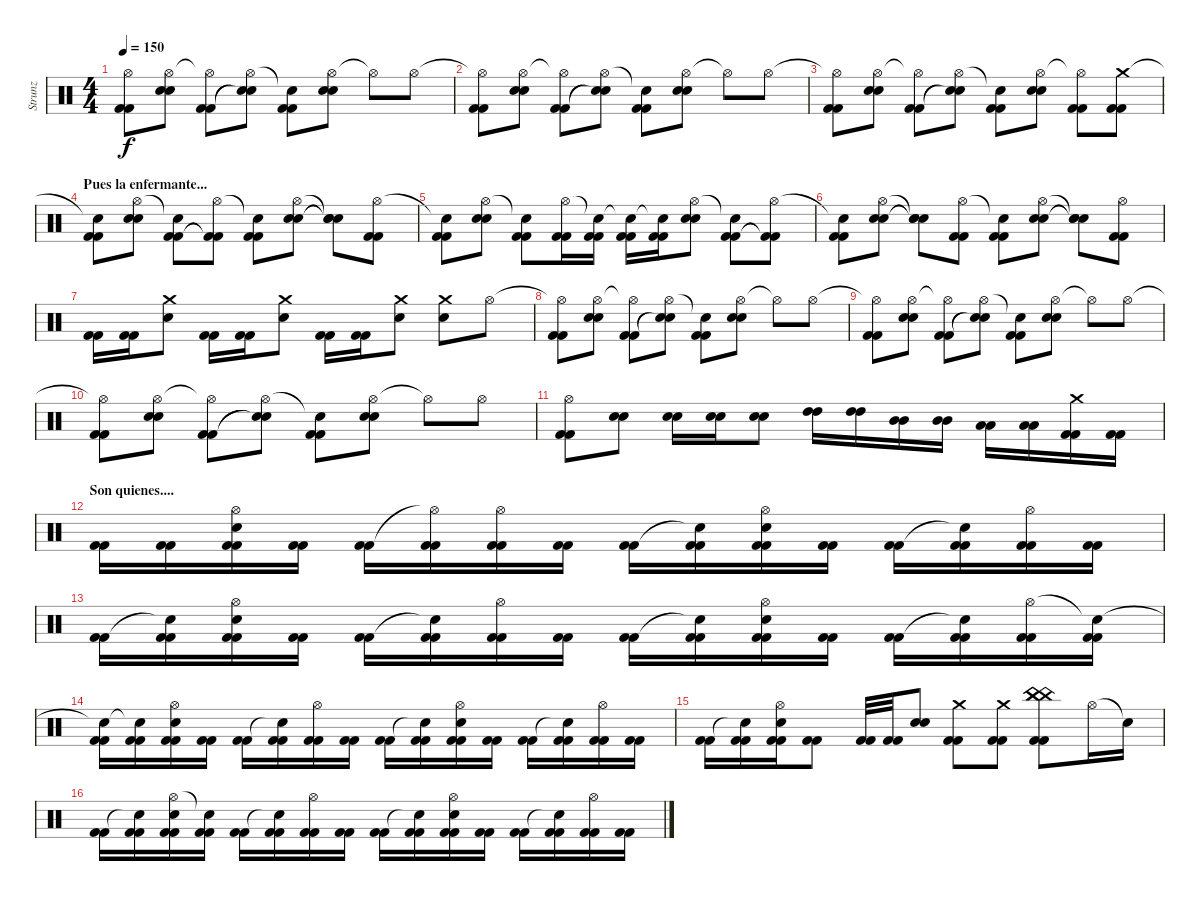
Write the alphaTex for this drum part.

\track ("Strunz" "Strunz") {instrument percussion}
\staff {score}
\articulation defaults
\ts (4 4)
\tempo 150
\clef neutral
\ks c
("Hi-Hat (open)"{t} "Kick (hit) 2" "Kick (hit) 2").8{dy f} ("Hi-Hat (open)" "Snare (hit) 2" "Snare (hit) 2").8 ("Hi-Hat (open)"{t} "Kick (hit) 2" "Kick (hit) 2").8 ("Hi-Hat (open)" "Snare (hit)"{t} "Snare (hit)"{t}).8 ("Snare (hit)"{t} "Kick (hit) 2" "Kick (hit) 2").8 ("Hi-Hat (open)" "Snare (hit) 2" "Snare (hit) 2").8 "Hi-Hat (open)"{t}.8 "Hi-Hat (open)".8 |
("Hi-Hat (open)"{t} "Kick (hit) 2" "Kick (hit) 2").8 ("Hi-Hat (open)" "Snare (hit) 2" "Snare (hit) 2").8 ("Hi-Hat (open)"{t} "Kick (hit) 2" "Kick (hit) 2").8 ("Hi-Hat (open)" "Snare (hit)"{t} "Snare (hit)"{t}).8 ("Snare (hit)"{t} "Kick (hit) 2" "Kick (hit) 2").8 ("Hi-Hat (open)" "Snare (hit) 2" "Snare (hit) 2").8 "Hi-Hat (open)"{t}.8 "Hi-Hat (open)".8 |
("Hi-Hat (open)"{t} "Kick (hit) 2" "Kick (hit) 2").8 ("Hi-Hat (open)" "Snare (hit) 2" "Snare (hit) 2").8 ("Hi-Hat (open)"{t} "Kick (hit) 2" "Kick (hit) 2").8 ("Hi-Hat (open)" "Snare (hit)"{t} "Snare (hit)"{t}).8 ("Snare (hit)"{t} "Kick (hit) 2" "Kick (hit) 2").8 ("Hi-Hat (open)" "Snare (hit) 2" "Snare (hit) 2").8 ("Hi-Hat (open)"{t} "Kick (hit) 2" "Kick (hit) 2").8 ("Crash medium (hit)" "Kick (hit) 2" "Kick (hit) 2").8 |
\section ("" "Pues la enfermante...")
("Snare (hit)"{t} "Kick (hit) 2" "Kick (hit) 2").8 ("Hi-Hat (open)" "Snare (hit) 2" "Snare (hit) 2").8 ("Snare (hit)"{t} "Kick (hit) 2" "Kick (hit) 2").8 ("Hi-Hat (open)" "Kick (hit) 2"{t} "Kick (hit) 2"{t}).8 ("Snare (hit)"{t} "Kick (hit) 2" "Kick (hit) 2").8 ("Hi-Hat (open)" "Snare (hit) 2" "Snare (hit) 2").8 ("Snare (hit)"{t} "Snare (hit) 2"{t} "Snare (hit) 2"{t}).8 ("Hi-Hat (open)" "Kick (hit) 2" "Kick (hit) 2").8 |
("Snare (hit)"{t} "Kick (hit) 2" "Kick (hit) 2").8 ("Hi-Hat (open)" "Snare (hit) 2" "Snare (hit) 2").8 ("Snare (hit)"{t} "Kick (hit) 2" "Kick (hit) 2").8 ("Hi-Hat (open)" "Kick (hit) 2" "Kick (hit) 2").16 ("Snare (hit)"{t} "Kick (hit) 2" "Kick (hit) 2").16 ("Snare (hit)"{t} "Kick (hit) 2" "Kick (hit) 2").16 ("Snare (hit)"{t} "Kick (hit) 2" "Kick (hit) 2").16 ("Hi-Hat (open)" "Snare (hit) 2" "Snare (hit) 2").8 ("Snare (hit)"{t} "Kick (hit) 2" "Kick (hit) 2").8 ("Hi-Hat (open)" "Kick (hit) 2"{t} "Kick (hit) 2"{t}).8 |
("Snare (hit)"{t} "Kick (hit) 2" "Kick (hit) 2").8 ("Hi-Hat (open)" "Snare (hit) 2" "Snare (hit) 2").8 ("Snare (hit)"{t} "Snare (hit) 2"{t} "Snare (hit) 2"{t}).8 ("Hi-Hat (open)" "Kick (hit) 2" "Kick (hit) 2").8 ("Snare (hit)"{t} "Kick (hit) 2" "Kick (hit) 2").8 ("Hi-Hat (open)" "Snare (hit) 2" "Snare (hit) 2").8 ("Snare (hit)"{t} "Snare (hit)"{t} "Snare (hit)"{t}).8 ("Hi-Hat (open)" "Kick (hit) 2" "Kick (hit) 2").8 |
("Kick (hit) 2" "Kick (hit) 2").16 ("Kick (hit) 2" "Kick (hit) 2").16 ("Crash medium (hit)" "Snare (hit) 2").8 ("Kick (hit) 2" "Kick (hit) 2").16 ("Kick (hit) 2" "Kick (hit) 2").16 ("Crash medium (hit)" "Snare (hit) 2").8 ("Kick (hit) 2" "Kick (hit) 2").16 ("Kick (hit) 2" "Kick (hit) 2").16 ("Crash medium (hit)" "Snare (hit) 2").8 ("Crash medium (hit)" "Snare (hit) 2").8 "Hi-Hat (open)".8 |
("Hi-Hat (open)"{t} "Kick (hit) 2" "Kick (hit) 2").8 ("Hi-Hat (open)" "Snare (hit) 2" "Snare (hit) 2").8 ("Hi-Hat (open)"{t} "Kick (hit) 2" "Kick (hit) 2").8 ("Hi-Hat (open)" "Snare (hit)"{t} "Snare (hit)"{t}).8 ("Snare (hit)"{t} "Kick (hit) 2" "Kick (hit) 2").8 ("Hi-Hat (open)" "Snare (hit) 2" "Snare (hit) 2").8 "Hi-Hat (open)"{t}.8 "Hi-Hat (open)".8 |
("Hi-Hat (open)"{t} "Kick (hit) 2" "Kick (hit) 2").8 ("Hi-Hat (open)" "Snare (hit) 2" "Snare (hit) 2").8 ("Hi-Hat (open)"{t} "Kick (hit) 2" "Kick (hit) 2").8 ("Hi-Hat (open)" "Snare (hit)"{t} "Snare (hit)"{t}).8 ("Snare (hit)"{t} "Kick (hit) 2" "Kick (hit) 2").8 ("Hi-Hat (open)" "Snare (hit) 2" "Snare (hit) 2").8 "Hi-Hat (open)"{t}.8 "Hi-Hat (open)".8 |
("Hi-Hat (open)"{t} "Kick (hit) 2" "Kick (hit) 2").8 ("Hi-Hat (open)" "Snare (hit) 2" "Snare (hit) 2").8 ("Hi-Hat (open)"{t} "Kick (hit) 2" "Kick (hit) 2").8 ("Hi-Hat (open)" "Snare (hit)"{t} "Snare (hit)"{t}).8 ("Snare (hit)"{t} "Kick (hit) 2" "Kick (hit) 2").8 ("Hi-Hat (open)" "Snare (hit) 2" "Snare (hit) 2").8 "Hi-Hat (open)"{t}.8 "Hi-Hat (open)".8 |
("Hi-Hat (open)" "Kick (hit) 2" "Kick (hit) 2").8 ("Snare (hit) 2" "Snare (hit) 2").8 ("Snare (hit) 2" "Snare (hit) 2").16 ("Snare (hit) 2" "Snare (hit) 2").16 ("Snare (hit) 2" "Snare (hit) 2").8 ("High Tom (hit)" "High Tom (hit)").16 ("High Tom (hit)" "High Tom (hit)").16 ("Mid Tom (hit)" "Mid Tom (hit)").16 ("Mid Tom (hit)" "Mid Tom (hit)").16 ("Low Tom (hit)" "Low Tom (hit)").16 ("Low Tom (hit)" "Low Tom (hit)").16 ("Crash medium (hit)" "Kick (hit) 2" "Kick (hit) 2").16 ("Kick (hit) 2" "Kick (hit) 2").16 |
\section ("" "Son quienes....")
("Kick (hit) 2" "Kick (hit) 2").16 ("Kick (hit) 2" "Kick (hit) 2").16 ("Hi-Hat (open)" "Snare (hit) 2" "Kick (hit) 2" "Kick (hit) 2").16 ("Kick (hit) 2" "Kick (hit) 2").16 ("Kick (hit) 2" "Kick (hit) 2").16 ("Hi-Hat (open)"{t} "Kick (hit) 2" "Kick (hit) 2").16 ("Hi-Hat (open)" "Kick (hit) 2" "Kick (hit) 2").16 ("Kick (hit) 2" "Kick (hit) 2").16 ("Kick (hit) 2" "Kick (hit) 2").16 ("Snare (hit)"{t} "Kick (hit) 2" "Kick (hit) 2").16 ("Hi-Hat (open)" "Snare (hit) 2" "Kick (hit) 2" "Kick (hit) 2").16 ("Kick (hit) 2" "Kick (hit) 2").16 ("Kick (hit) 2" "Kick (hit) 2").16 ("Snare (hit)"{t} "Kick (hit) 2" "Kick (hit) 2").16 ("Hi-Hat (open)" "Kick (hit) 2" "Kick (hit) 2").16 ("Kick (hit) 2" "Kick (hit) 2").16 |
("Kick (hit) 2" "Kick (hit) 2").16 ("Snare (hit)"{t} "Kick (hit) 2" "Kick (hit) 2").16 ("Hi-Hat (open)" "Snare (hit) 2" "Kick (hit) 2" "Kick (hit) 2").16 ("Kick (hit) 2" "Kick (hit) 2").16 ("Kick (hit) 2" "Kick (hit) 2").16 ("Snare (hit)"{t} "Kick (hit) 2" "Kick (hit) 2").16 ("Hi-Hat (open)" "Kick (hit) 2" "Kick (hit) 2").16 ("Kick (hit) 2" "Kick (hit) 2").16 ("Kick (hit) 2" "Kick (hit) 2").16 ("Snare (hit)"{t} "Kick (hit) 2" "Kick (hit) 2").16 ("Hi-Hat (open)" "Snare (hit) 2" "Kick (hit) 2" "Kick (hit) 2").16 ("Kick (hit) 2" "Kick (hit) 2").16 ("Kick (hit) 2" "Kick (hit) 2").16 ("Snare (hit)"{t} "Kick (hit) 2" "Kick (hit) 2").16 ("Hi-Hat (open)" "Kick (hit) 2" "Kick (hit) 2").16 ("Snare (hit)"{t} "Kick (hit) 2" "Kick (hit) 2").16 |
("Snare (hit)"{t} "Kick (hit) 2" "Kick (hit) 2").16 ("Snare (hit)"{t} "Kick (hit) 2" "Kick (hit) 2").16 ("Hi-Hat (open)" "Snare (hit) 2" "Kick (hit) 2" "Kick (hit) 2").16 ("Kick (hit) 2" "Kick (hit) 2").16 ("Kick (hit) 2" "Kick (hit) 2").16 ("Snare (hit)"{t} "Kick (hit) 2" "Kick (hit) 2").16 ("Hi-Hat (open)" "Kick (hit) 2" "Kick (hit) 2").16 ("Kick (hit) 2" "Kick (hit) 2").16 ("Kick (hit) 2" "Kick (hit) 2").16 ("Snare (hit)"{t} "Kick (hit) 2" "Kick (hit) 2").16 ("Hi-Hat (open)" "Snare (hit) 2" "Kick (hit) 2" "Kick (hit) 2").16 ("Kick (hit) 2" "Kick (hit) 2").16 ("Kick (hit) 2" "Kick (hit) 2").16 ("Snare (hit)"{t} "Kick (hit) 2" "Kick (hit) 2").16 ("Hi-Hat (open)" "Kick (hit) 2" "Kick (hit) 2").16 ("Kick (hit) 2" "Kick (hit) 2").16 |
("Kick (hit) 2" "Kick (hit) 2").16 ("Snare (hit)"{t} "Kick (hit) 2" "Kick (hit) 2").16 ("Hi-Hat (open)" "Snare (hit) 2" "Kick (hit) 2" "Kick (hit) 2").16 ("Kick (hit) 2" "Kick (hit) 2").8 ("Kick (hit) 2" "Kick (hit) 2").32 ("Kick (hit) 2" "Kick (hit) 2").32 ("Snare (hit) 2" "Snare (hit) 2").8 ("Crash medium (hit)" "Kick (hit) 2" "Kick (hit) 2").8 ("Crash medium (hit)" "Kick (hit) 2" "Kick (hit) 2").8 ("China (hit)" "China (hit)" "China (hit)" "Kick (hit) 2" "Kick (hit) 2").8 "Hi-Hat (open)".16 "Snare (hit)"{t}.16 |
("Kick (hit) 2" "Kick (hit) 2").16 ("Snare (hit)"{t} "Kick (hit) 2" "Kick (hit) 2").16 ("Hi-Hat (open)" "Snare (hit) 2" "Kick (hit) 2" "Kick (hit) 2").16 ("Snare (hit)"{t} "Kick (hit) 2" "Kick (hit) 2").16 ("Kick (hit) 2" "Kick (hit) 2").16 ("Snare (hit)"{t} "Kick (hit) 2" "Kick (hit) 2").16 ("Hi-Hat (open)" "Kick (hit) 2" "Kick (hit) 2").16 ("Kick (hit) 2" "Kick (hit) 2").16 ("Kick (hit) 2" "Kick (hit) 2").16 ("Snare (hit)"{t} "Kick (hit) 2" "Kick (hit) 2").16 ("Hi-Hat (open)" "Snare (hit) 2" "Kick (hit) 2" "Kick (hit) 2").16 ("Kick (hit) 2" "Kick (hit) 2").16 ("Kick (hit) 2" "Kick (hit) 2").16 ("Snare (hit)"{t} "Kick (hit) 2" "Kick (hit) 2").16 ("Hi-Hat (open)" "Kick (hit) 2" "Kick (hit) 2").16 ("Kick (hit) 2" "Kick (hit) 2").16
